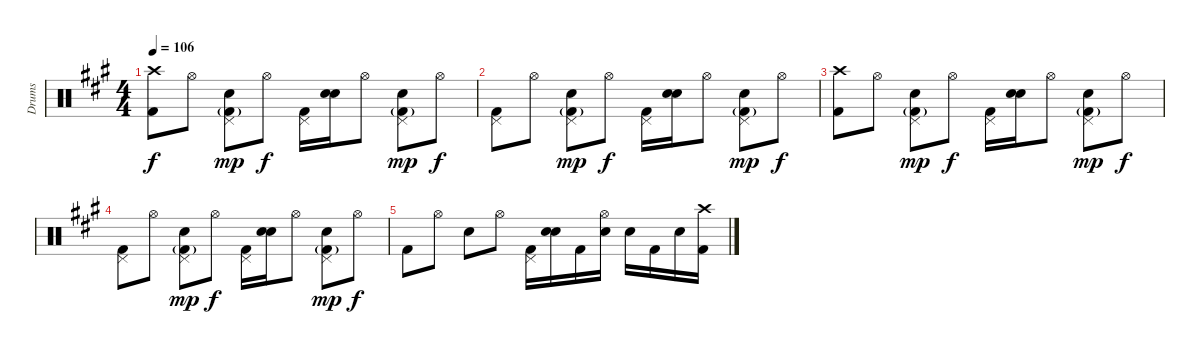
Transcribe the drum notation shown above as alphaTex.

\track ("Drums" "Drums") {instrument percussion}
\staff {score}
\articulation defaults
\ts (4 4)
\tempo 106
\clef neutral
\ks a
("Crash high (hit)" "Kick (hit) 2").8{dy f} "Hi-Hat (open)".8 ("Pedal Hi-Hat (hit)" "Electric Snare (hit)" "Kick (hit) 2"{g}).8{dy mp} "Hi-Hat (open)".8{dy f} ("Pedal Hi-Hat (hit)" "Kick (hit) 2").16 ("Snare (hit)"{x} "Electric Snare (hit)").16 "Hi-Hat (open)".8 ("Pedal Hi-Hat (hit)" "Electric Snare (hit)" "Kick (hit) 2"{g}).8{dy mp} "Hi-Hat (open)".8{dy f} |
("Pedal Hi-Hat (hit)" "Kick (hit) 2").8 "Hi-Hat (open)".8 ("Pedal Hi-Hat (hit)" "Electric Snare (hit)" "Kick (hit) 2"{g}).8{dy mp} "Hi-Hat (open)".8{dy f} ("Pedal Hi-Hat (hit)" "Kick (hit) 2").16 ("Snare (hit)"{x} "Electric Snare (hit)").16 "Hi-Hat (open)".8 ("Pedal Hi-Hat (hit)" "Electric Snare (hit)" "Kick (hit) 2"{g}).8{dy mp} "Hi-Hat (open)".8{dy f} |
("Crash high (hit)" "Kick (hit) 2").8 "Hi-Hat (open)".8 ("Pedal Hi-Hat (hit)" "Electric Snare (hit)" "Kick (hit) 2"{g}).8{dy mp} "Hi-Hat (open)".8{dy f} ("Pedal Hi-Hat (hit)" "Kick (hit) 2").16 ("Snare (hit)"{x} "Electric Snare (hit)").16 "Hi-Hat (open)".8 ("Pedal Hi-Hat (hit)" "Electric Snare (hit)" "Kick (hit) 2"{g}).8{dy mp} "Hi-Hat (open)".8{dy f} |
("Pedal Hi-Hat (hit)" "Kick (hit) 2").8 "Hi-Hat (open)".8 ("Pedal Hi-Hat (hit)" "Electric Snare (hit)" "Kick (hit) 2"{g}).8{dy mp} "Hi-Hat (open)".8{dy f} ("Pedal Hi-Hat (hit)" "Kick (hit) 2").16 ("Snare (hit)"{x} "Electric Snare (hit)").16 "Hi-Hat (open)".8 ("Pedal Hi-Hat (hit)" "Electric Snare (hit)" "Kick (hit) 2"{g}).8{dy mp} "Hi-Hat (open)".8{dy f} |
"Kick (hit) 2".8 "Hi-Hat (open)".8 "Electric Snare (hit)".8 "Hi-Hat (open)".8 ("Pedal Hi-Hat (hit)" "Kick (hit) 2").16 ("Electric Snare (hit)" "Snare (hit)"{x}).16 "Kick (hit) 2".16 ("Hi-Hat (open)" "Electric Snare (hit)").16 "Snare (hit)"{x}.16 "Kick (hit) 2".16 "Snare (hit)"{x}.16 ("Crash high (hit)" "Kick (hit) 2").16
